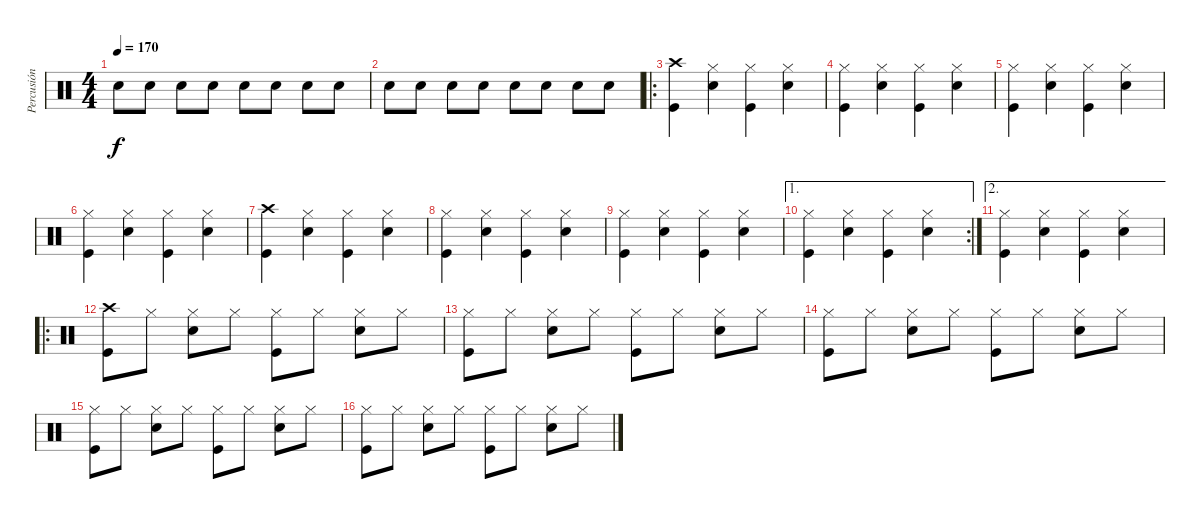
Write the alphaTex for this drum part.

\track ("Percusión" "Percusión") {instrument percussion}
\staff {score}
\articulation defaults
\ts (4 4)
\tempo 170
\clef neutral
\ks c "Snare (hit) 2".8{dy f} "Snare (hit) 2".8 "Snare (hit) 2".8 "Snare (hit) 2".8 "Snare (hit) 2".8 "Snare (hit) 2".8 "Snare (hit) 2".8 "Snare (hit) 2".8
|
"Snare (hit) 2".8 "Snare (hit) 2".8 "Snare (hit) 2".8 "Snare (hit) 2".8 "Snare (hit) 2".8 "Snare (hit) 2".8 "Snare (hit) 2".8 "Snare (hit) 2".8 |
\ro
("Kick (hit)" "Crash high (hit)").4 ("Snare (hit) 2" "Hi-Hat (closed)").4 ("Kick (hit)" "Hi-Hat (closed)").4 ("Snare (hit) 2" "Hi-Hat (closed)").4 |
("Kick (hit)" "Hi-Hat (closed)").4 ("Snare (hit) 2" "Hi-Hat (closed)").4 ("Kick (hit)" "Hi-Hat (closed)").4 ("Snare (hit) 2" "Hi-Hat (closed)").4 |
("Kick (hit)" "Hi-Hat (closed)").4 ("Snare (hit) 2" "Hi-Hat (closed)").4 ("Kick (hit)" "Hi-Hat (closed)").4 ("Snare (hit) 2" "Hi-Hat (closed)").4 |
("Kick (hit)" "Hi-Hat (closed)").4 ("Snare (hit) 2" "Hi-Hat (closed)").4 ("Kick (hit)" "Hi-Hat (closed)").4 ("Snare (hit) 2" "Hi-Hat (closed)").4 |
("Kick (hit)" "Crash high (hit)").4 ("Snare (hit) 2" "Hi-Hat (closed)").4 ("Kick (hit)" "Hi-Hat (closed)").4 ("Snare (hit) 2" "Hi-Hat (closed)").4 |
("Kick (hit)" "Hi-Hat (closed)").4 ("Snare (hit) 2" "Hi-Hat (closed)").4 ("Kick (hit)" "Hi-Hat (closed)").4 ("Snare (hit) 2" "Hi-Hat (closed)").4 |
("Kick (hit)" "Hi-Hat (closed)").4 ("Snare (hit) 2" "Hi-Hat (closed)").4 ("Kick (hit)" "Hi-Hat (closed)").4 ("Snare (hit) 2" "Hi-Hat (closed)").4 |
\ae 1
\rc 2
("Kick (hit)" "Hi-Hat (closed)").4 ("Snare (hit) 2" "Hi-Hat (closed)").4 ("Kick (hit)" "Hi-Hat (closed)").4 ("Snare (hit) 2" "Hi-Hat (closed)").4 |
\ae 2
("Kick (hit)" "Hi-Hat (closed)").4 ("Snare (hit) 2" "Hi-Hat (closed)").4 ("Kick (hit)" "Hi-Hat (closed)").4 ("Snare (hit) 2" "Hi-Hat (closed)").4 |
\ro
("Kick (hit)" "Crash high (hit)").8 "Hi-Hat (closed)".8 ("Snare (hit) 2" "Hi-Hat (closed)").8 "Hi-Hat (closed)".8 ("Kick (hit)" "Hi-Hat (closed)").8 "Hi-Hat (closed)".8 ("Snare (hit) 2" "Hi-Hat (closed)").8 "Hi-Hat (closed)".8 |
("Kick (hit)" "Hi-Hat (closed)").8 "Hi-Hat (closed)".8 ("Snare (hit) 2" "Hi-Hat (closed)").8 "Hi-Hat (closed)".8 ("Kick (hit)" "Hi-Hat (closed)").8 "Hi-Hat (closed)".8 ("Snare (hit) 2" "Hi-Hat (closed)").8 "Hi-Hat (closed)".8 |
("Kick (hit)" "Hi-Hat (closed)").8 "Hi-Hat (closed)".8 ("Snare (hit) 2" "Hi-Hat (closed)").8 "Hi-Hat (closed)".8 ("Kick (hit)" "Hi-Hat (closed)").8 "Hi-Hat (closed)".8 ("Snare (hit) 2" "Hi-Hat (closed)").8 "Hi-Hat (closed)".8 |
("Kick (hit)" "Hi-Hat (closed)").8 "Hi-Hat (closed)".8 ("Snare (hit) 2" "Hi-Hat (closed)").8 "Hi-Hat (closed)".8 ("Kick (hit)" "Hi-Hat (closed)").8 "Hi-Hat (closed)".8 ("Snare (hit) 2" "Hi-Hat (closed)").8 "Hi-Hat (closed)".8 |
("Kick (hit)" "Hi-Hat (closed)").8 "Hi-Hat (closed)".8 ("Snare (hit) 2" "Hi-Hat (closed)").8 "Hi-Hat (closed)".8 ("Kick (hit)" "Hi-Hat (closed)").8 "Hi-Hat (closed)".8 ("Snare (hit) 2" "Hi-Hat (closed)").8 "Hi-Hat (closed)".8
